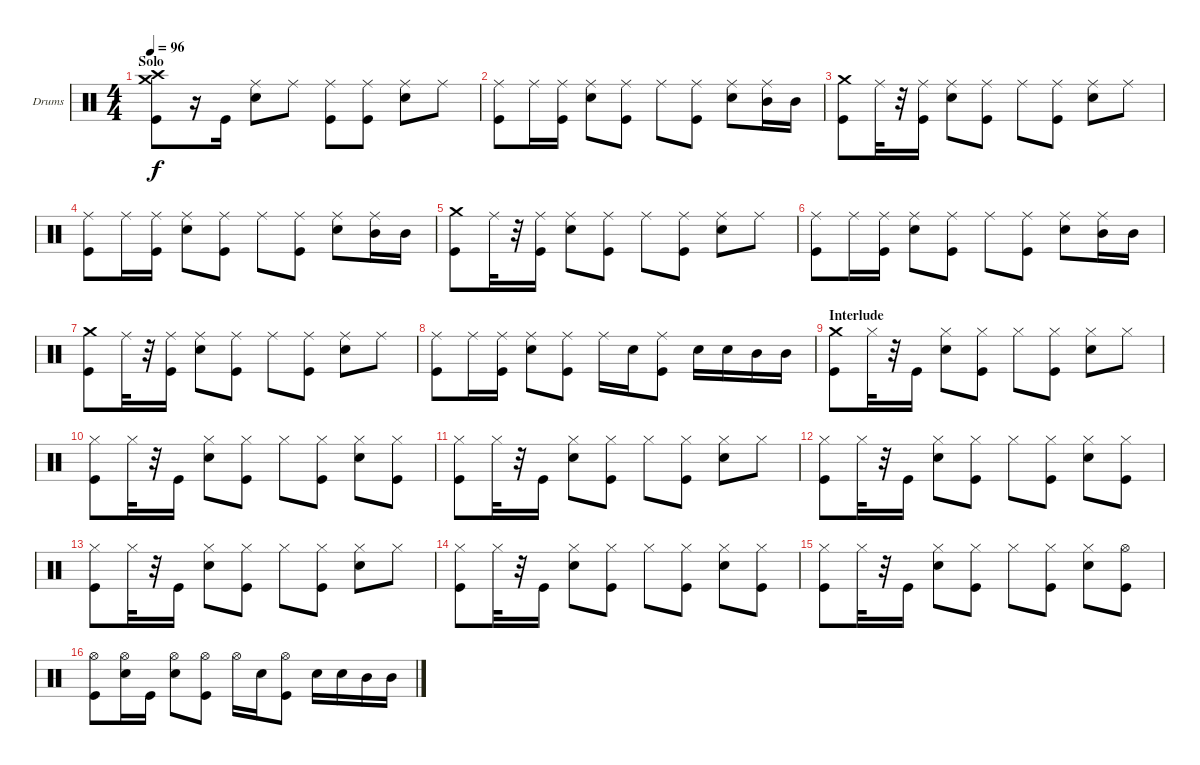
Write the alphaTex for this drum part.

\defaultSystemsLayout 4
\bracketExtendMode nobrackets
\firstSystemTrackNameOrientation horizontal
\otherSystemsTrackNameOrientation horizontal
\track ("Dave Abbruzzese" "Drums") {solo instrument percussion}
\staff {score}
\articulation defaults
\ts (4 4)
\section ("" "Solo")
\tempo 96
\clef neutral
\ks c
("Crash high (hit)" "Crash medium (hit)" "Kick (hit)").8{dy f} r.16 "Kick (hit)".16 ("Ride (middle)" "Snare (hit) 2").8 "Ride (middle)".8 ("Ride (middle)" "Kick (hit)").8 ("Ride (middle)" "Kick (hit)").8 ("Ride (middle)" "Snare (hit) 2").8 "Ride (middle)".8 |
("Ride (middle)" "Kick (hit)").8 "Ride (middle)".16 ("Ride (middle)" "Kick (hit)").16 ("Ride (middle)" "Snare (hit) 2").8 ("Ride (middle)" "Kick (hit)").8 "Ride (middle)".8 ("Ride (middle)" "Kick (hit)").8 ("Ride (middle)" "Snare (hit) 2").8 ("Ride (middle)" "Mid Tom (hit)").16 "Mid Tom (hit)".16 |
("Crash medium (hit)" "Kick (hit)").8 "Ride (middle)".32 r.32 ("Ride (middle)" "Kick (hit)").16 ("Ride (middle)" "Snare (hit) 2").8 ("Ride (middle)" "Kick (hit)").8 "Ride (middle)".8 ("Ride (middle)" "Kick (hit)").8 ("Ride (middle)" "Snare (hit) 2").8 "Ride (middle)".8 |
("Ride (middle)" "Kick (hit)").8 "Ride (middle)".16 ("Ride (middle)" "Kick (hit)").16 ("Ride (middle)" "Snare (hit) 2").8 ("Ride (middle)" "Kick (hit)").8 "Ride (middle)".8 ("Ride (middle)" "Kick (hit)").8 ("Ride (middle)" "Snare (hit) 2").8 ("Ride (middle)" "Mid Tom (hit)").16 "Mid Tom (hit)".16 |
("Crash medium (hit)" "Kick (hit)").8 "Ride (middle)".32 r.32 ("Ride (middle)" "Kick (hit)").16 ("Ride (middle)" "Snare (hit) 2").8 ("Ride (middle)" "Kick (hit)").8 "Ride (middle)".8 ("Ride (middle)" "Kick (hit)").8 ("Ride (middle)" "Snare (hit) 2").8 "Ride (middle)".8 |
("Ride (middle)" "Kick (hit)").8 "Ride (middle)".16 ("Ride (middle)" "Kick (hit)").16 ("Ride (middle)" "Snare (hit) 2").8 ("Ride (middle)" "Kick (hit)").8 "Ride (middle)".8 ("Ride (middle)" "Kick (hit)").8 ("Ride (middle)" "Snare (hit) 2").8 ("Ride (middle)" "Mid Tom (hit)").16 "Mid Tom (hit)".16 |
("Crash medium (hit)" "Kick (hit)").8 "Ride (middle)".32 r.32 ("Ride (middle)" "Kick (hit)").16 ("Ride (middle)" "Snare (hit) 2").8 ("Ride (middle)" "Kick (hit)").8 "Ride (middle)".8 ("Ride (middle)" "Kick (hit)").8 ("Ride (middle)" "Snare (hit) 2").8 "Ride (middle)".8 |
("Ride (middle)" "Kick (hit)").8 "Ride (middle)".16 ("Ride (middle)" "Kick (hit)").16 ("Ride (middle)" "Snare (hit) 2").8 ("Ride (middle)" "Kick (hit)").8 "Ride (middle)".16 "Snare (hit) 2".16 ("Ride (middle)" "Kick (hit)").8 "Snare (hit) 2".16 "Snare (hit) 2".16 "Mid Tom (hit)".16 "Mid Tom (hit)".16 |
\section ("" "Interlude")
("Crash medium (hit)" "Kick (hit)").8 "Hi-Hat (closed)".32 r.32 "Kick (hit)".16 ("Hi-Hat (closed)" "Snare (hit) 2").8 ("Hi-Hat (closed)" "Kick (hit)").8 "Hi-Hat (closed)".8 ("Hi-Hat (closed)" "Kick (hit)").8 ("Hi-Hat (closed)" "Snare (hit) 2").8 "Hi-Hat (closed)".8 |
("Hi-Hat (closed)" "Kick (hit)").8 "Hi-Hat (closed)".32 r.32 "Kick (hit)".16 ("Hi-Hat (closed)" "Snare (hit) 2").8 ("Hi-Hat (closed)" "Kick (hit)").8 "Hi-Hat (closed)".8 ("Hi-Hat (closed)" "Kick (hit)").8 ("Hi-Hat (closed)" "Snare (hit) 2").8 ("Hi-Hat (closed)" "Kick (hit)").8 |
("Hi-Hat (closed)" "Kick (hit)").8 "Hi-Hat (closed)".32 r.32 "Kick (hit)".16 ("Hi-Hat (closed)" "Snare (hit) 2").8 ("Hi-Hat (closed)" "Kick (hit)").8 "Hi-Hat (closed)".8 ("Hi-Hat (closed)" "Kick (hit)").8 ("Hi-Hat (closed)" "Snare (hit) 2").8 "Hi-Hat (closed)".8 |
("Hi-Hat (closed)" "Kick (hit)").8 "Hi-Hat (closed)".32 r.32 "Kick (hit)".16 ("Hi-Hat (closed)" "Snare (hit) 2").8 ("Hi-Hat (closed)" "Kick (hit)").8 "Hi-Hat (closed)".8 ("Hi-Hat (closed)" "Kick (hit)").8 ("Hi-Hat (closed)" "Snare (hit) 2").8 ("Hi-Hat (closed)" "Kick (hit)").8 |
("Hi-Hat (closed)" "Kick (hit)").8 "Hi-Hat (closed)".32 r.32 "Kick (hit)".16 ("Hi-Hat (closed)" "Snare (hit) 2").8 ("Hi-Hat (closed)" "Kick (hit)").8 "Hi-Hat (closed)".8 ("Hi-Hat (closed)" "Kick (hit)").8 ("Hi-Hat (closed)" "Snare (hit) 2").8 "Hi-Hat (closed)".8 |
("Hi-Hat (closed)" "Kick (hit)").8 "Hi-Hat (closed)".32 r.32 "Kick (hit)".16 ("Hi-Hat (closed)" "Snare (hit) 2").8 ("Hi-Hat (closed)" "Kick (hit)").8 "Hi-Hat (closed)".8 ("Hi-Hat (closed)" "Kick (hit)").8 ("Hi-Hat (closed)" "Snare (hit) 2").8 ("Hi-Hat (closed)" "Kick (hit)").8 |
("Hi-Hat (closed)" "Kick (hit)").8 "Hi-Hat (closed)".32 r.32 "Kick (hit)".16 ("Hi-Hat (closed)" "Snare (hit) 2").8 ("Hi-Hat (closed)" "Kick (hit)").8 "Hi-Hat (closed)".8 ("Hi-Hat (closed)" "Kick (hit)").8 ("Hi-Hat (closed)" "Snare (hit) 2").8 ("Hi-Hat (open)" "Kick (hit)").8 |
("Hi-Hat (open)" "Kick (hit)").8 ("Hi-Hat (open)" "Snare (hit) 2").16 "Kick (hit)".16 ("Hi-Hat (open)" "Snare (hit) 2").8 ("Hi-Hat (open)" "Kick (hit)").8 "Hi-Hat (open)".16 "Snare (hit) 2".16 ("Hi-Hat (open)" "Kick (hit)").8 "Snare (hit) 2".16 "Snare (hit) 2".16 "Mid Tom (hit)".16 "Mid Tom (hit)".16
